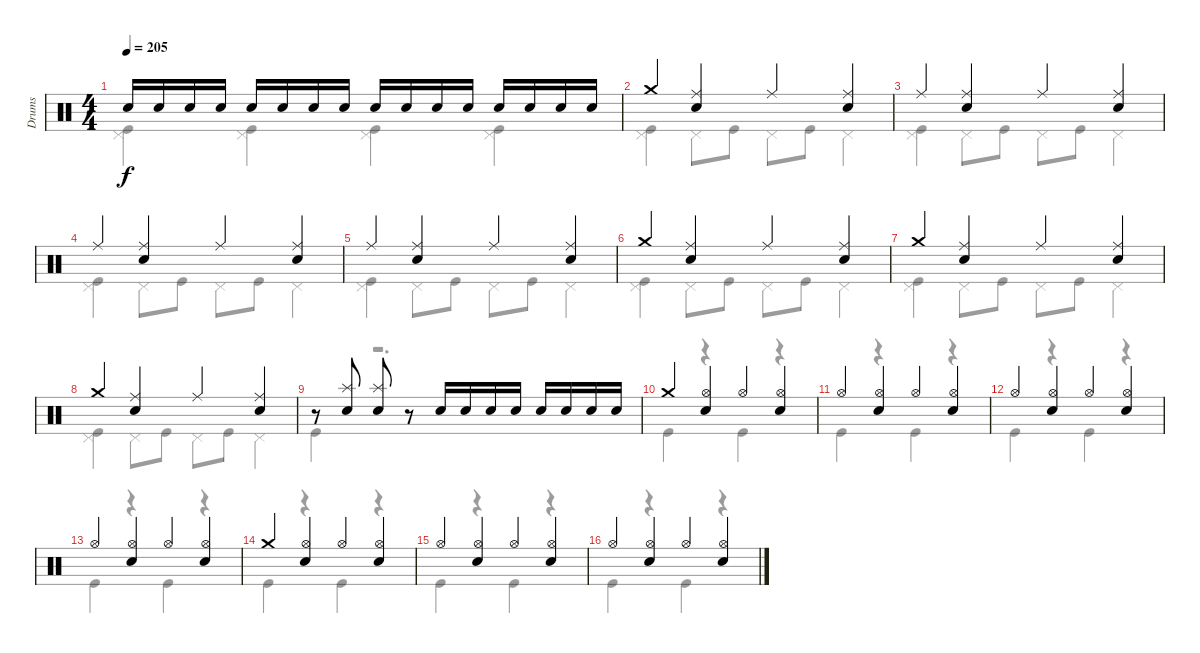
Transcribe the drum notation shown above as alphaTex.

\track ("Drums" "Drums") {instrument percussion}
\staff {score}
\articulation defaults
\voice
\ts (4 4)
\tempo 205
\clef neutral
\ks c "Snare (hit) 2".16{dy f} "Snare (hit) 2".16 "Snare (hit) 2".16 "Snare (hit) 2".16 "Snare (hit) 2".16 "Snare (hit) 2".16 "Snare (hit) 2".16 "Snare (hit) 2".16 "Snare (hit) 2".16 "Snare (hit) 2".16 "Snare (hit) 2".16 "Snare (hit) 2".16 "Snare (hit) 2".16 "Snare (hit) 2".16 "Snare (hit) 2".16 "Snare (hit) 2".16
|
"Crash medium (hit)".4 ("Ride (middle)" "Snare (hit) 2").4 "Ride (middle)".4 ("Ride (middle)" "Snare (hit) 2").4 |
"Ride (middle)".4 ("Ride (middle)" "Snare (hit) 2").4 "Ride (middle)".4 ("Ride (middle)" "Snare (hit) 2").4 |
"Ride (middle)".4 ("Ride (middle)" "Snare (hit) 2").4 "Ride (middle)".4 ("Ride (middle)" "Snare (hit) 2").4 |
"Ride (middle)".4 ("Ride (middle)" "Snare (hit) 2").4 "Ride (middle)".4 ("Ride (middle)" "Snare (hit) 2").4 |
"Crash medium (hit)".4 ("Ride (middle)" "Snare (hit) 2").4 "Ride (middle)".4 ("Ride (middle)" "Snare (hit) 2").4 |
"Crash medium (hit)".4 ("Ride (middle)" "Snare (hit) 2").4 "Ride (middle)".4 ("Ride (middle)" "Snare (hit) 2").4 |
"Crash medium (hit)".4 ("Ride (middle)" "Snare (hit) 2").4 "Ride (middle)".4 ("Ride (middle)" "Snare (hit) 2").4 |
r.8 ("Splash (hit)" "Snare (hit) 2").8 ("Splash (hit)" "Snare (hit) 2").8 r.8 "Snare (hit) 2".16 "Snare (hit) 2".16 "Snare (hit) 2".16 "Snare (hit) 2".16 "Snare (hit) 2".16 "Snare (hit) 2".16 "Snare (hit) 2".16 "Snare (hit) 2".16 |
"Crash medium (hit)".4 ("Hi-Hat (open)" "Snare (hit) 2").4 "Hi-Hat (open)".4 ("Hi-Hat (open)" "Snare (hit) 2").4 |
"Hi-Hat (open)".4 ("Hi-Hat (open)" "Snare (hit) 2").4 "Hi-Hat (open)".4 ("Hi-Hat (open)" "Snare (hit) 2").4 |
"Hi-Hat (open)".4 ("Hi-Hat (open)" "Snare (hit) 2").4 "Hi-Hat (open)".4 ("Hi-Hat (open)" "Snare (hit) 2").4 |
"Hi-Hat (open)".4 ("Hi-Hat (open)" "Snare (hit) 2").4 "Hi-Hat (open)".4 ("Hi-Hat (open)" "Snare (hit) 2").4 |
"Crash medium (hit)".4 ("Hi-Hat (open)" "Snare (hit) 2").4 "Hi-Hat (open)".4 ("Hi-Hat (open)" "Snare (hit) 2").4 |
"Hi-Hat (open)".4 ("Hi-Hat (open)" "Snare (hit) 2").4 "Hi-Hat (open)".4 ("Hi-Hat (open)" "Snare (hit) 2").4 |
"Hi-Hat (open)".4 ("Hi-Hat (open)" "Snare (hit) 2").4 "Hi-Hat (open)".4 ("Hi-Hat (open)" "Snare (hit) 2").4
\voice
\clef neutral
\ottava regular
\simile none
\ks c
("Pedal Hi-Hat (hit)" "Kick (hit)").4{dy f} ("Pedal Hi-Hat (hit)" "Kick (hit)").4 ("Pedal Hi-Hat (hit)" "Kick (hit)").4 ("Pedal Hi-Hat (hit)" "Kick (hit)").4 |
("Pedal Hi-Hat (hit)" "Kick (hit)").4 "Pedal Hi-Hat (hit)".8 "Kick (hit)".8 "Pedal Hi-Hat (hit)".8 "Kick (hit)".8 "Pedal Hi-Hat (hit)".4 |
("Pedal Hi-Hat (hit)" "Kick (hit)").4 "Pedal Hi-Hat (hit)".8 "Kick (hit)".8 "Pedal Hi-Hat (hit)".8 "Kick (hit)".8 "Pedal Hi-Hat (hit)".4 |
("Pedal Hi-Hat (hit)" "Kick (hit)").4 "Pedal Hi-Hat (hit)".8 "Kick (hit)".8 "Pedal Hi-Hat (hit)".8 "Kick (hit)".8 "Pedal Hi-Hat (hit)".4 |
("Pedal Hi-Hat (hit)" "Kick (hit)").4 "Pedal Hi-Hat (hit)".8 "Kick (hit)".8 "Pedal Hi-Hat (hit)".8 "Kick (hit)".8 "Pedal Hi-Hat (hit)".4 |
("Pedal Hi-Hat (hit)" "Kick (hit)").4 "Pedal Hi-Hat (hit)".8 "Kick (hit)".8 "Pedal Hi-Hat (hit)".8 "Kick (hit)".8 "Pedal Hi-Hat (hit)".4 |
("Pedal Hi-Hat (hit)" "Kick (hit)").4 "Pedal Hi-Hat (hit)".8 "Kick (hit)".8 "Pedal Hi-Hat (hit)".8 "Kick (hit)".8 "Pedal Hi-Hat (hit)".4 |
("Pedal Hi-Hat (hit)" "Kick (hit)").4 "Pedal Hi-Hat (hit)".8 "Kick (hit)".8 "Pedal Hi-Hat (hit)".8 "Kick (hit)".8 "Pedal Hi-Hat (hit)".4 |
"Kick (hit)".4 r.2{d} |
"Kick (hit)".4 r.4 "Kick (hit)".4 r.4 |
"Kick (hit)".4 r.4 "Kick (hit)".4 r.4 |
"Kick (hit)".4 r.4 "Kick (hit)".4 r.4 |
"Kick (hit)".4 r.4 "Kick (hit)".4 r.4 |
"Kick (hit)".4 r.4 "Kick (hit)".4 r.4 |
"Kick (hit)".4 r.4 "Kick (hit)".4 r.4 |
"Kick (hit)".4 r.4 "Kick (hit)".4 r.4
